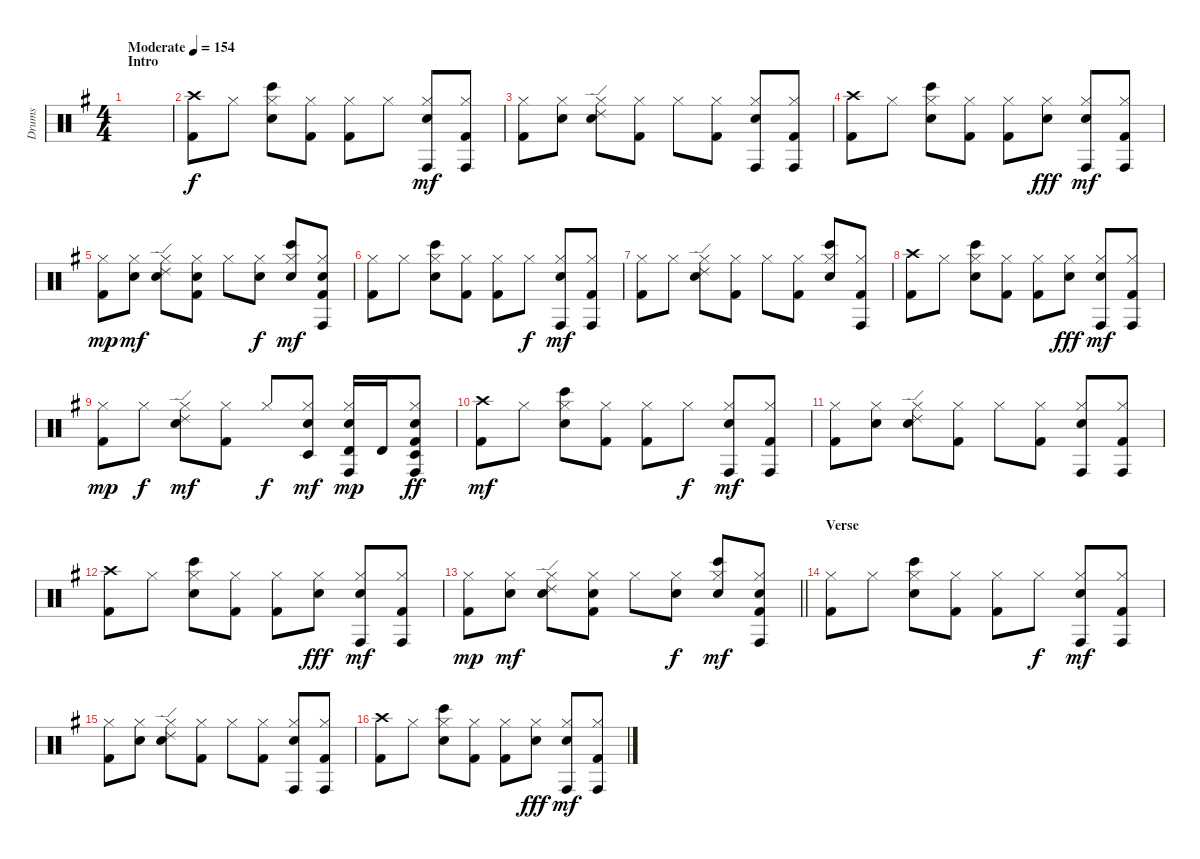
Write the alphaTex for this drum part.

\track ("Drums" "Drums") {instrument percussion}
\staff {score}
\articulation defaults
\ts (4 4)
\section ("" "Intro")
\tempo (154 "Moderate")
\clef neutral
\ks g
|
("Kick (hit) 2" "Crash high (hit)").8 "Hi-Hat (closed)".8 ("Electric Snare (hit)" "Hi-Hat (closed)" "Bongo High (hit)").8 ("Kick (hit) 2" "Hi-Hat (closed)").8 ("Kick (hit) 2" "Hi-Hat (closed)").8 "Hi-Hat (closed)".8{dy f} ("Electric Snare (hit)" "Hi-Hat (closed)" "Conga high (hit)").8{dy mf} ("Kick (hit) 2" "Hi-Hat (closed)" "Conga high (hit)").8 |
("Kick (hit) 2" "Hi-Hat (closed)").8 ("Electric Snare (hit)" "Hi-Hat (closed)").8 ("Electric Snare (hit)" "Hi-Hat (closed)" "Ride (edge) 2").8 ("Kick (hit) 2" "Hi-Hat (closed)").8 "Hi-Hat (closed)".8 ("Kick (hit) 2" "Hi-Hat (closed)").8 ("Electric Snare (hit)" "Hi-Hat (closed)" "Conga high (hit)").8 ("Kick (hit) 2" "Hi-Hat (closed)" "Conga high (hit)").8 |
("Kick (hit) 2" "Crash high (hit)").8 "Hi-Hat (closed)".8 ("Electric Snare (hit)" "Hi-Hat (closed)" "Bongo High (hit)").8 ("Kick (hit) 2" "Hi-Hat (closed)").8 ("Kick (hit) 2" "Hi-Hat (closed)").8 ("Hi-Hat (closed)" "Snare (hit) 2").8{dy fff} ("Electric Snare (hit)" "Hi-Hat (closed)" "Conga high (hit)").8{dy mf} ("Kick (hit) 2" "Hi-Hat (closed)" "Conga high (hit)").8 |
("Kick (hit) 2" "Hi-Hat (closed)").8{dy mp} ("Electric Snare (hit)" "Hi-Hat (closed)").8{dy mf} ("Electric Snare (hit)" "Hi-Hat (closed)" "Ride (edge) 2").8 ("Kick (hit) 2" "Electric Snare (hit)" "Hi-Hat (closed)").8 "Hi-Hat (closed)".8 ("Electric Snare (hit)" "Hi-Hat (closed)").8{dy f} ("Electric Snare (hit)" "Hi-Hat (closed)" "Bongo High (hit)").8{dy mf} ("Kick (hit) 2" "Electric Snare (hit)" "Hi-Hat (closed)" "Conga high (hit)").8 |
("Kick (hit) 2" "Hi-Hat (closed)").8 "Hi-Hat (closed)".8 ("Electric Snare (hit)" "Hi-Hat (closed)" "Bongo High (hit)").8 ("Kick (hit) 2" "Hi-Hat (closed)").8 ("Kick (hit) 2" "Hi-Hat (closed)").8 "Hi-Hat (closed)".8{dy f} ("Electric Snare (hit)" "Hi-Hat (closed)" "Conga high (hit)").8{dy mf} ("Kick (hit) 2" "Hi-Hat (closed)" "Conga high (hit)").8 |
("Kick (hit) 2" "Hi-Hat (closed)").8 "Hi-Hat (closed)".8 ("Electric Snare (hit)" "Hi-Hat (closed)" "Ride (edge) 2").8 ("Kick (hit) 2" "Hi-Hat (closed)").8 "Hi-Hat (closed)".8 ("Kick (hit) 2" "Hi-Hat (closed)").8 ("Electric Snare (hit)" "Hi-Hat (closed)" "Bongo High (hit)").8 ("Kick (hit) 2" "Hi-Hat (closed)" "Conga high (hit)").8 |
("Kick (hit) 2" "Crash high (hit)").8 "Hi-Hat (closed)".8 ("Electric Snare (hit)" "Hi-Hat (closed)" "Bongo High (hit)").8 ("Kick (hit) 2" "Hi-Hat (closed)").8 ("Kick (hit) 2" "Hi-Hat (closed)").8 ("Hi-Hat (closed)" "Snare (hit) 2").8{dy fff} ("Electric Snare (hit)" "Hi-Hat (closed)" "Conga high (hit)").8{dy mf} ("Kick (hit) 2" "Hi-Hat (closed)" "Conga high (hit)").8 |
("Kick (hit) 2" "Hi-Hat (closed)").8{dy mp} "Hi-Hat (closed)".8{dy f} ("Electric Snare (hit)" "Hi-Hat (closed)" "Ride (edge) 2").8{dy mf} ("Kick (hit) 2" "Hi-Hat (closed)").8 "Hi-Hat (closed)".8{dy f} ("Electric Snare (hit)" "Hi-Hat (closed)" "Timbale low (hit)").8{dy mf} ("Electric Snare (hit)" "Hi-Hat (closed)" "Conga high (hit)" "Timbale high (hit)").16{dy mp} "Timbale high (hit)".16 ("Kick (hit) 2" "Electric Snare (hit)" "Hi-Hat (closed)" "Conga high (hit)" "Timbale low (hit)").8{dy ff} |
("Kick (hit) 2" "Crash high (hit)").8{dy mf} "Hi-Hat (closed)".8 ("Electric Snare (hit)" "Hi-Hat (closed)" "Bongo High (hit)").8 ("Kick (hit) 2" "Hi-Hat (closed)").8 ("Kick (hit) 2" "Hi-Hat (closed)").8 "Hi-Hat (closed)".8{dy f} ("Electric Snare (hit)" "Hi-Hat (closed)" "Conga high (hit)").8{dy mf} ("Kick (hit) 2" "Hi-Hat (closed)" "Conga high (hit)").8 |
("Kick (hit) 2" "Hi-Hat (closed)").8 ("Electric Snare (hit)" "Hi-Hat (closed)").8 ("Electric Snare (hit)" "Hi-Hat (closed)" "Ride (edge) 2").8 ("Kick (hit) 2" "Hi-Hat (closed)").8 "Hi-Hat (closed)".8 ("Kick (hit) 2" "Hi-Hat (closed)").8 ("Electric Snare (hit)" "Hi-Hat (closed)" "Conga high (hit)").8 ("Kick (hit) 2" "Hi-Hat (closed)" "Conga high (hit)").8 |
("Kick (hit) 2" "Crash high (hit)").8 "Hi-Hat (closed)".8 ("Electric Snare (hit)" "Hi-Hat (closed)" "Bongo High (hit)").8 ("Kick (hit) 2" "Hi-Hat (closed)").8 ("Kick (hit) 2" "Hi-Hat (closed)").8 ("Hi-Hat (closed)" "Snare (hit) 2").8{dy fff} ("Electric Snare (hit)" "Hi-Hat (closed)" "Conga high (hit)").8{dy mf} ("Kick (hit) 2" "Hi-Hat (closed)" "Conga high (hit)").8 |
\barLineRight lightlight
("Kick (hit) 2" "Hi-Hat (closed)").8{dy mp} ("Electric Snare (hit)" "Hi-Hat (closed)").8{dy mf} ("Electric Snare (hit)" "Hi-Hat (closed)" "Ride (edge) 2").8 ("Kick (hit) 2" "Electric Snare (hit)" "Hi-Hat (closed)").8 "Hi-Hat (closed)".8 ("Electric Snare (hit)" "Hi-Hat (closed)").8{dy f} ("Electric Snare (hit)" "Hi-Hat (closed)" "Bongo High (hit)").8{dy mf} ("Kick (hit) 2" "Electric Snare (hit)" "Hi-Hat (closed)" "Conga high (hit)").8 |
\section ("" "Verse")
("Kick (hit) 2" "Hi-Hat (closed)").8 "Hi-Hat (closed)".8 ("Electric Snare (hit)" "Hi-Hat (closed)" "Bongo High (hit)").8 ("Kick (hit) 2" "Hi-Hat (closed)").8 ("Kick (hit) 2" "Hi-Hat (closed)").8 "Hi-Hat (closed)".8{dy f} ("Electric Snare (hit)" "Hi-Hat (closed)" "Conga high (hit)").8{dy mf} ("Kick (hit) 2" "Hi-Hat (closed)" "Conga high (hit)").8 |
("Kick (hit) 2" "Hi-Hat (closed)").8 ("Electric Snare (hit)" "Hi-Hat (closed)").8 ("Electric Snare (hit)" "Hi-Hat (closed)" "Ride (edge) 2").8 ("Kick (hit) 2" "Hi-Hat (closed)").8 "Hi-Hat (closed)".8 ("Kick (hit) 2" "Hi-Hat (closed)").8 ("Electric Snare (hit)" "Hi-Hat (closed)" "Conga high (hit)").8 ("Kick (hit) 2" "Hi-Hat (closed)" "Conga high (hit)").8 |
("Kick (hit) 2" "Crash high (hit)").8 "Hi-Hat (closed)".8 ("Electric Snare (hit)" "Hi-Hat (closed)" "Bongo High (hit)").8 ("Kick (hit) 2" "Hi-Hat (closed)").8 ("Kick (hit) 2" "Hi-Hat (closed)").8 ("Hi-Hat (closed)" "Snare (hit) 2").8{dy fff} ("Electric Snare (hit)" "Hi-Hat (closed)" "Conga high (hit)").8{dy mf} ("Kick (hit) 2" "Hi-Hat (closed)" "Conga high (hit)").8
